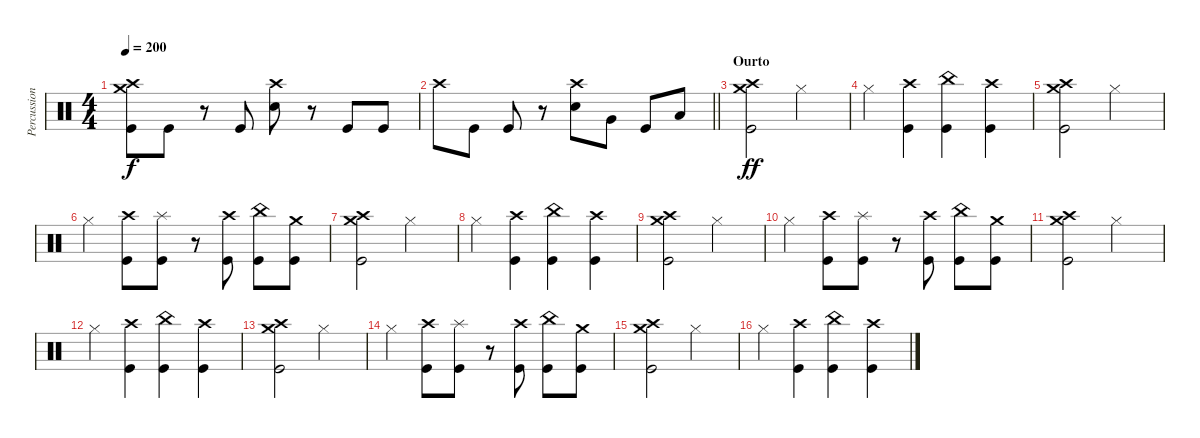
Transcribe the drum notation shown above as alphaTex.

\track ("Percussion" "Percussion") {instrument percussion}
\staff {score}
\articulation defaults
\ts (4 4)
\tempo 200
\clef neutral
\ks c
("Crash high (hit)" "Crash medium (hit)" "Kick (hit)").8{dy f} "Kick (hit)".8 r.8 "Kick (hit)".8 ("Crash high (hit)" "Snare (hit) 2").8 r.8 "Kick (hit)".8 "Kick (hit)".8 |
\barLineRight lightlight "Crash high (hit)".8 "Kick (hit)".8 "Kick (hit)".8
r.8 ("Crash high (hit)" "Snare (hit) 2").8 "Very Low Tom (hit)".8 "Kick (hit)".8 "Low Floor Tom (hit)".8 |
\section ("" "Ourto")
("Crash high (hit)" "Crash medium (hit)" "Kick (hit)").2{dy ff} "Hi-Hat (closed)".2 |
"Hi-Hat (closed)".4 ("Crash high (hit)" "Kick (hit)").4 ("China (hit)" "Kick (hit)").4 ("Crash high (hit)" "Kick (hit)").4 |
("Crash high (hit)" "Crash medium (hit)" "Kick (hit)").2 "Hi-Hat (closed)".2 |
"Hi-Hat (closed)".4 ("Kick (hit)" "Crash high (hit)").8 ("Kick (hit)" "Splash (hit)").8 r.8 ("Crash high (hit)" "Kick (hit)").8 ("China (hit)" "Kick (hit)").8 ("Crash medium (hit)" "Kick (hit)").8 |
("Crash high (hit)" "Crash medium (hit)" "Kick (hit)").2 "Hi-Hat (closed)".2 |
"Hi-Hat (closed)".4 ("Crash high (hit)" "Kick (hit)").4 ("China (hit)" "Kick (hit)").4 ("Crash high (hit)" "Kick (hit)").4 |
("Crash high (hit)" "Crash medium (hit)" "Kick (hit)").2 "Hi-Hat (closed)".2 |
"Hi-Hat (closed)".4 ("Kick (hit)" "Crash high (hit)").8 ("Kick (hit)" "Splash (hit)").8 r.8 ("Crash high (hit)" "Kick (hit)").8 ("China (hit)" "Kick (hit)").8 ("Crash medium (hit)" "Kick (hit)").8 |
("Crash high (hit)" "Crash medium (hit)" "Kick (hit)").2 "Hi-Hat (closed)".2 |
"Hi-Hat (closed)".4 ("Crash high (hit)" "Kick (hit)").4 ("China (hit)" "Kick (hit)").4 ("Crash high (hit)" "Kick (hit)").4 |
("Crash high (hit)" "Crash medium (hit)" "Kick (hit)").2 "Hi-Hat (closed)".2 |
"Hi-Hat (closed)".4 ("Kick (hit)" "Crash high (hit)").8 ("Kick (hit)" "Splash (hit)").8 r.8 ("Crash high (hit)" "Kick (hit)").8 ("China (hit)" "Kick (hit)").8 ("Crash medium (hit)" "Kick (hit)").8 |
("Crash high (hit)" "Crash medium (hit)" "Kick (hit)").2 "Hi-Hat (closed)".2 |
"Hi-Hat (closed)".4 ("Crash high (hit)" "Kick (hit)").4 ("China (hit)" "Kick (hit)").4 ("Crash high (hit)" "Kick (hit)").4
